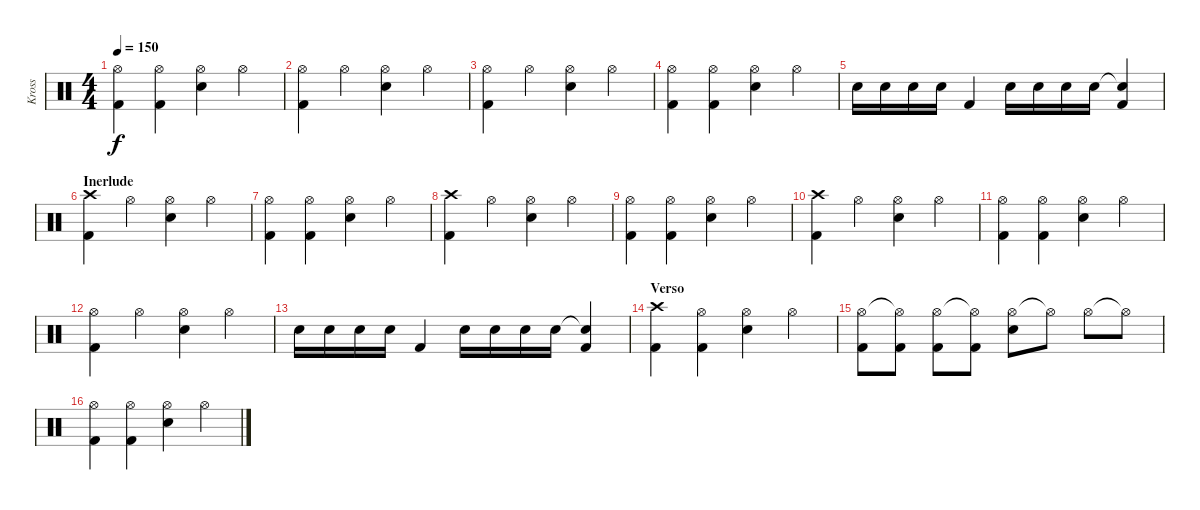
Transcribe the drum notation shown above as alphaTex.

\track ("Kross" "Kross") {instrument percussion}
\staff {score}
\articulation defaults
\ts (4 4)
\tempo 150
\clef neutral
\ks c
("Hi-Hat (open)" "Kick (hit) 2").4{dy f} ("Hi-Hat (open)" "Kick (hit) 2").4 ("Hi-Hat (open)" "Snare (hit) 2").4 "Hi-Hat (open)".4 |
("Hi-Hat (open)" "Kick (hit) 2").4 "Hi-Hat (open)".4 ("Hi-Hat (open)" "Snare (hit) 2").4 "Hi-Hat (open)".4 |
("Hi-Hat (open)" "Kick (hit) 2").4 "Hi-Hat (open)".4 ("Hi-Hat (open)" "Snare (hit) 2").4 "Hi-Hat (open)".4 |
("Hi-Hat (open)" "Kick (hit) 2").4 ("Hi-Hat (open)" "Kick (hit) 2").4 ("Hi-Hat (open)" "Snare (hit) 2").4 "Hi-Hat (open)".4 |
"Snare (hit) 2".16 "Snare (hit) 2".16 "Snare (hit) 2".16 "Snare (hit) 2".16 "Kick (hit) 2".4 "Snare (hit) 2".16 "Snare (hit) 2".16 "Snare (hit) 2".16 "Snare (hit) 2".16 ("Snare (hit)"{t} "Kick (hit) 2").4 |
\section ("" "Inerlude")
("Crash high (hit)" "Kick (hit) 2").4 "Hi-Hat (open)".4 ("Hi-Hat (open)" "Snare (hit) 2").4 "Hi-Hat (open)".4 |
("Hi-Hat (open)" "Kick (hit) 2").4 ("Hi-Hat (open)" "Kick (hit) 2").4 ("Hi-Hat (open)" "Snare (hit) 2").4 "Hi-Hat (open)".4 |
("Crash high (hit)" "Kick (hit) 2").4 "Hi-Hat (open)".4 ("Hi-Hat (open)" "Snare (hit) 2").4 "Hi-Hat (open)".4 |
("Hi-Hat (open)" "Kick (hit) 2").4 ("Hi-Hat (open)" "Kick (hit) 2").4 ("Hi-Hat (open)" "Snare (hit) 2").4 "Hi-Hat (open)".4 |
("Crash high (hit)" "Kick (hit) 2").4 "Hi-Hat (open)".4 ("Hi-Hat (open)" "Snare (hit) 2").4 "Hi-Hat (open)".4 |
("Hi-Hat (open)" "Kick (hit) 2").4 ("Hi-Hat (open)" "Kick (hit) 2").4 ("Hi-Hat (open)" "Snare (hit) 2").4 "Hi-Hat (open)".4 |
("Hi-Hat (open)" "Kick (hit) 2").4 "Hi-Hat (open)".4 ("Hi-Hat (open)" "Snare (hit) 2").4 "Hi-Hat (open)".4 |
"Snare (hit) 2".16 "Snare (hit) 2".16 "Snare (hit) 2".16 "Snare (hit) 2".16 "Kick (hit) 2".4 "Snare (hit) 2".16 "Snare (hit) 2".16 "Snare (hit) 2".16 "Snare (hit) 2".16 ("Snare (hit)"{t} "Kick (hit) 2").4 |
\section ("" "Verso")
("Crash high (hit)" "Kick (hit) 2").4 ("Hi-Hat (open)" "Kick (hit) 2").4 ("Hi-Hat (open)" "Snare (hit) 2").4 "Hi-Hat (open)".4 |
("Hi-Hat (open)" "Kick (hit) 2").8 ("Hi-Hat (open)"{t} "Kick (hit) 2").8 ("Hi-Hat (open)" "Kick (hit) 2").8 ("Hi-Hat (open)"{t} "Kick (hit) 2").8 ("Hi-Hat (open)" "Snare (hit) 2").8 "Hi-Hat (open)"{t}.8 "Hi-Hat (open)".8 "Hi-Hat (open)"{t}.8 |
("Hi-Hat (open)" "Kick (hit) 2").4 ("Hi-Hat (open)" "Kick (hit) 2").4 ("Hi-Hat (open)" "Snare (hit) 2").4 "Hi-Hat (open)".4
